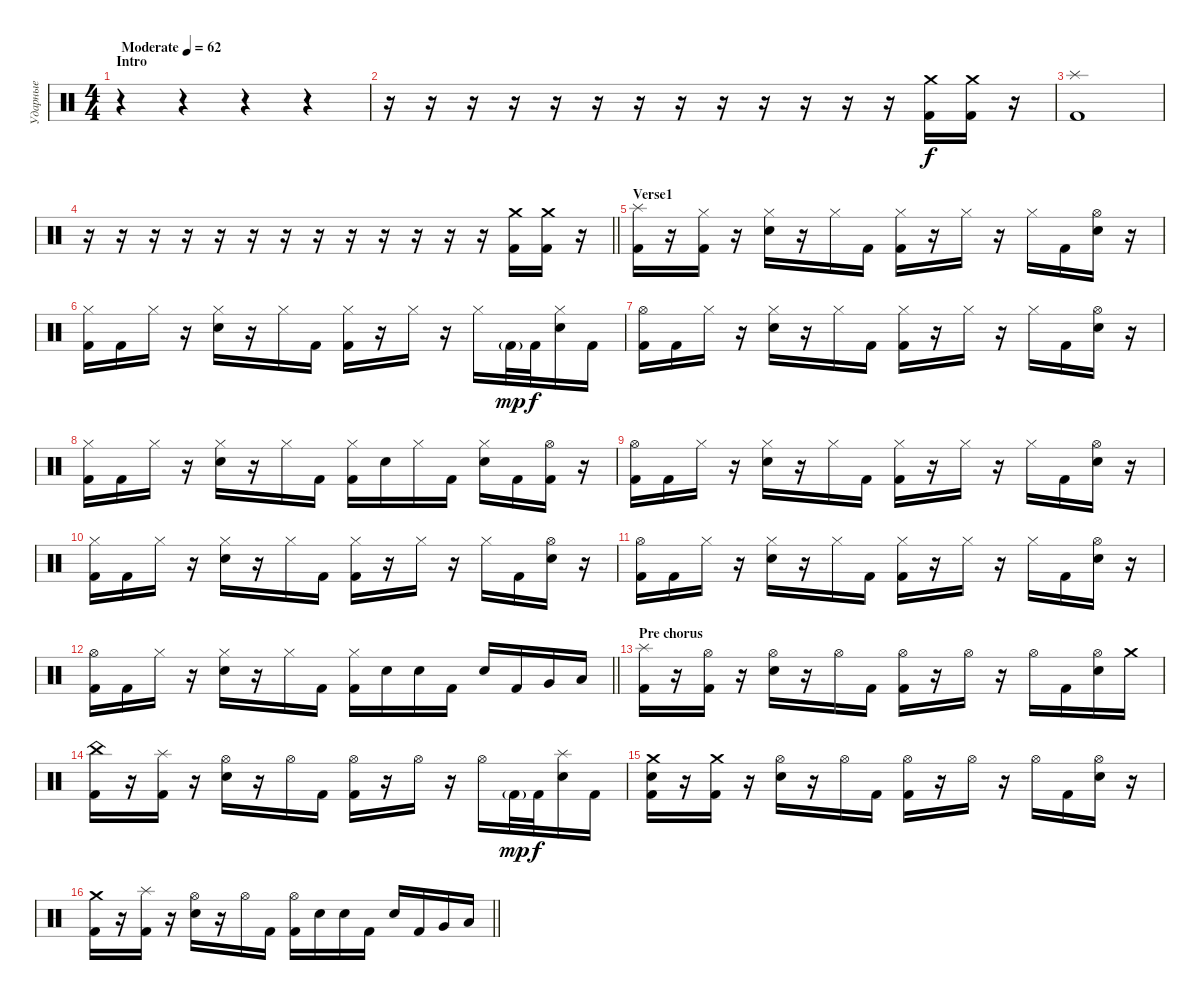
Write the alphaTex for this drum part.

\track ("Ударные" "Ударные") {instrument percussion}
\staff {score}
\articulation defaults
\ts (4 4)
\section ("" "Intro")
\tempo (62 "Moderate")
\clef neutral
\ks c
r.4{dy f} r.4 r.4 r.4 |
r.16 r.16 r.16 r.16 r.16 r.16 r.16 r.16 r.16 r.16 r.16 r.16 r.16 ("Crash medium (hit)" "Kick (hit) 2").16 ("Crash medium (hit)" "Kick (hit) 2").16 r.16 |
("Splash (hit)" "Kick (hit) 2").1 |
\barLineRight lightlight
r.16 r.16 r.16 r.16 r.16 r.16 r.16 r.16 r.16 r.16 r.16 r.16 r.16 ("Crash medium (hit)" "Kick (hit) 2").16 ("Crash medium (hit)" "Kick (hit) 2").16 r.16 |
\section ("" "Verse1")
("Splash (hit)" "Kick (hit) 2").16 r.16 ("Hi-Hat (closed)" "Kick (hit) 2").16 r.16 ("Hi-Hat (closed)" "Snare (hit) 2").16 r.16 "Hi-Hat (closed)".16 "Kick (hit) 2".16 ("Hi-Hat (closed)" "Kick (hit) 2").16 r.16 "Hi-Hat (closed)".16 r.16 "Hi-Hat (closed)".16 "Kick (hit) 2".16 ("Hi-Hat (open)" "Snare (hit) 2").16 r.16 |
("Hi-Hat (closed)" "Kick (hit) 2").16 "Kick (hit) 2".16 "Hi-Hat (closed)".16 r.16 ("Hi-Hat (closed)" "Snare (hit) 2").16 r.16 "Hi-Hat (closed)".16 "Kick (hit) 2".16 ("Hi-Hat (closed)" "Kick (hit) 2").16 r.16 "Hi-Hat (closed)".16 r.16 "Hi-Hat (closed)".16 "Kick (hit) 2"{g}.32{dy mp} "Kick (hit) 2".32{dy f} ("Hi-Hat (closed)" "Snare (hit) 2").16 "Kick (hit) 2".16 |
("Hi-Hat (open)" "Kick (hit) 2").16 "Kick (hit) 2".16 "Hi-Hat (closed)".16 r.16 ("Hi-Hat (closed)" "Snare (hit) 2").16 r.16 "Hi-Hat (closed)".16 "Kick (hit) 2".16 ("Hi-Hat (closed)" "Kick (hit) 2").16 r.16 "Hi-Hat (closed)".16 r.16 "Hi-Hat (closed)".16 "Kick (hit) 2".16 ("Hi-Hat (open)" "Snare (hit) 2").16 r.16 |
("Hi-Hat (closed)" "Kick (hit) 2").16 "Kick (hit) 2".16 "Hi-Hat (closed)".16 r.16 ("Hi-Hat (closed)" "Snare (hit) 2").16 r.16 "Hi-Hat (closed)".16 "Kick (hit) 2".16 ("Hi-Hat (closed)" "Kick (hit) 2").16 "Snare (hit) 2".16 "Hi-Hat (closed)".16 "Kick (hit) 2".16 ("Hi-Hat (closed)" "Snare (hit) 2").16 "Kick (hit) 2".16 ("Hi-Hat (open)" "Kick (hit) 2").16 r.16 |
("Hi-Hat (open)" "Kick (hit) 2").16 "Kick (hit) 2".16 "Hi-Hat (closed)".16 r.16 ("Hi-Hat (closed)" "Snare (hit) 2").16 r.16 "Hi-Hat (closed)".16 "Kick (hit) 2".16 ("Hi-Hat (closed)" "Kick (hit) 2").16 r.16 "Hi-Hat (closed)".16 r.16 "Hi-Hat (closed)".16 "Kick (hit) 2".16 ("Hi-Hat (open)" "Snare (hit) 2").16 r.16 |
("Hi-Hat (closed)" "Kick (hit) 2").16 "Kick (hit) 2".16 "Hi-Hat (closed)".16 r.16 ("Hi-Hat (closed)" "Snare (hit) 2").16 r.16 "Hi-Hat (closed)".16 "Kick (hit) 2".16 ("Hi-Hat (closed)" "Kick (hit) 2").16 r.16 "Hi-Hat (closed)".16 r.16 "Hi-Hat (closed)".16 "Kick (hit) 2".16 ("Hi-Hat (open)" "Snare (hit) 2").16 r.16 |
("Hi-Hat (open)" "Kick (hit) 2").16 "Kick (hit) 2".16 "Hi-Hat (closed)".16 r.16 ("Hi-Hat (closed)" "Snare (hit) 2").16 r.16 "Hi-Hat (closed)".16 "Kick (hit) 2".16 ("Hi-Hat (closed)" "Kick (hit) 2").16 r.16 "Hi-Hat (closed)".16 r.16 "Hi-Hat (closed)".16 "Kick (hit) 2".16 ("Hi-Hat (open)" "Snare (hit) 2").16 r.16 |
\barLineRight lightlight
("Hi-Hat (open)" "Kick (hit) 2").16 "Kick (hit) 2".16 "Hi-Hat (closed)".16 r.16 ("Hi-Hat (closed)" "Snare (hit) 2").16 r.16 "Hi-Hat (closed)".16 "Kick (hit) 2".16 ("Hi-Hat (closed)" "Kick (hit) 2").16 "Snare (hit) 2".16 "Snare (hit) 2".16 "Kick (hit) 2".16 "Snare (hit) 2".16 "Kick (hit) 2".16 "Very Low Tom (hit)".16 "Low Floor Tom (hit)".16 |
\section ("" "Pre chorus")
("Splash (hit)" "Kick (hit) 2").16 r.16 ("Hi-Hat (open)" "Kick (hit) 2").16 r.16 ("Hi-Hat (open)" "Snare (hit) 2").16 r.16 "Hi-Hat (open)".16 "Kick (hit) 2".16 ("Hi-Hat (open)" "Kick (hit) 2").16 r.16 "Hi-Hat (open)".16 r.16 "Hi-Hat (open)".16 "Kick (hit) 2".16 ("Hi-Hat (open)" "Snare (hit) 2").16 "Crash medium (hit)".16 |
("China (hit)" "Kick (hit) 2").16 r.16 ("Splash (hit)" "Kick (hit) 2").16 r.16 ("Hi-Hat (open)" "Snare (hit) 2").16 r.16 "Hi-Hat (open)".16 "Kick (hit) 2".16 ("Hi-Hat (open)" "Kick (hit) 2").16 r.16 "Hi-Hat (open)".16 r.16 "Hi-Hat (open)".16 "Kick (hit) 2"{g}.32{dy mp} "Kick (hit) 2".32{dy f} ("Splash (hit)" "Snare (hit) 2").16 "Kick (hit) 2".16 |
("Snare (hit) 2" "Crash medium (hit)" "Kick (hit) 2").16 r.16 ("Crash medium (hit)" "Kick (hit) 2").16 r.16 ("Hi-Hat (open)" "Snare (hit) 2").16 r.16 "Hi-Hat (open)".16 "Kick (hit) 2".16 ("Hi-Hat (open)" "Kick (hit) 2").16 r.16 "Hi-Hat (open)".16 r.16 "Hi-Hat (open)".16 "Kick (hit) 2".16 ("Hi-Hat (open)" "Snare (hit) 2").16 r.16 |
\barLineRight lightlight
("Crash medium (hit)" "Kick (hit) 2").16 r.16 ("Splash (hit)" "Kick (hit) 2").16 r.16 ("Hi-Hat (open)" "Snare (hit) 2").16 r.16 "Hi-Hat (open)".16 "Kick (hit) 2".16 ("Hi-Hat (open)" "Kick (hit) 2").16 "Snare (hit) 2".16 "Snare (hit) 2".16 "Kick (hit) 2".16 "Snare (hit) 2".16 "Kick (hit) 2".16 "Very Low Tom (hit)".16 "Low Floor Tom (hit)".16
